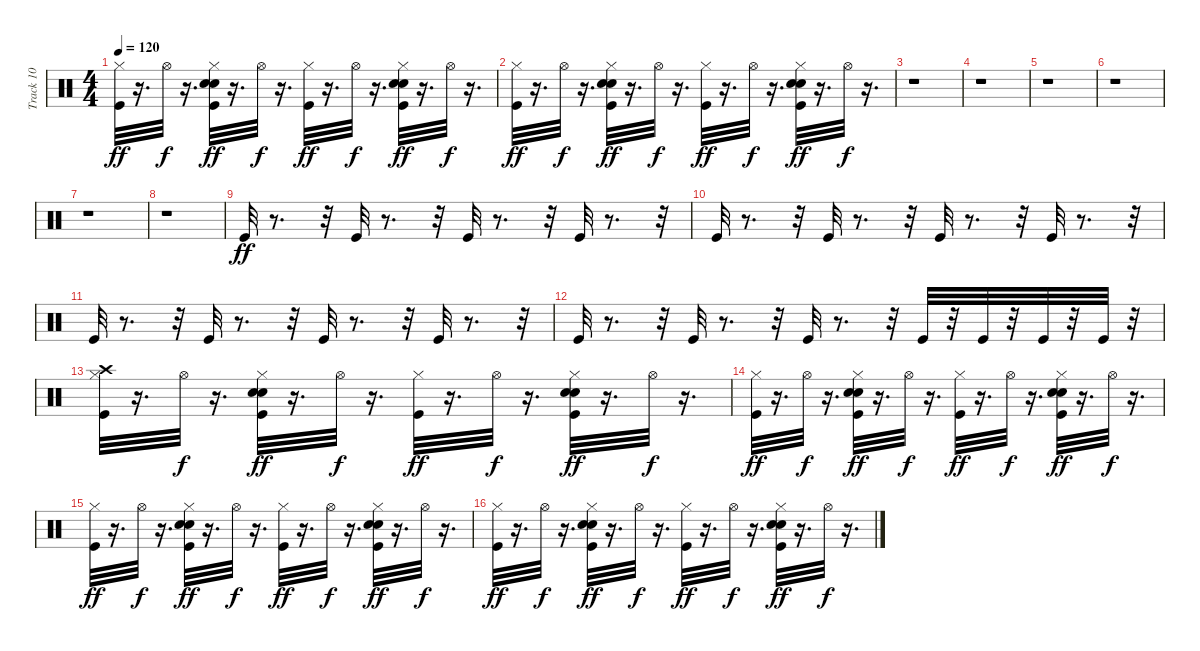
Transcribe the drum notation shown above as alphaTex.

\track ("Track 10" "Track 10") {instrument percussion}
\staff {score}
\articulation defaults
\ts (4 4)
\tempo 120
\clef neutral
\ks c
("Kick (hit)" "Hi-Hat (closed)").32{dy ff} r.16{d} "Hi-Hat (open)".32{dy f} r.16{d} ("Kick (hit)" "Snare (hit) 2" "Hand Clap (hit)" "Hi-Hat (closed)").32{dy ff} r.16{d} "Hi-Hat (open)".32{dy f} r.16{d} ("Kick (hit)" "Hi-Hat (closed)").32{dy ff} r.16{d} "Hi-Hat (open)".32{dy f} r.16{d} ("Kick (hit)" "Snare (hit) 2" "Hand Clap (hit)" "Hi-Hat (closed)").32{dy ff} r.16{d} "Hi-Hat (open)".32{dy f} r.16{d} |
("Kick (hit)" "Hi-Hat (closed)").32{dy ff} r.16{d} "Hi-Hat (open)".32{dy f} r.16{d} ("Kick (hit)" "Snare (hit) 2" "Hand Clap (hit)" "Hi-Hat (closed)").32{dy ff} r.16{d} "Hi-Hat (open)".32{dy f} r.16{d} ("Kick (hit)" "Hi-Hat (closed)").32{dy ff} r.16{d} "Hi-Hat (open)".32{dy f} r.16{d} ("Kick (hit)" "Snare (hit) 2" "Hand Clap (hit)" "Hi-Hat (closed)").32{dy ff} r.16{d} "Hi-Hat (open)".32{dy f} r.16{d} |
r.1 |
r.1 |
r.1 |
r.1 |
r.1 |
r.1 |
"Kick (hit)".32{dy ff} r.8{d} r.32 "Kick (hit)".32 r.8{d} r.32 "Kick (hit)".32 r.8{d} r.32 "Kick (hit)".32 r.8{d} r.32 |
"Kick (hit)".32 r.8{d} r.32 "Kick (hit)".32 r.8{d} r.32 "Kick (hit)".32 r.8{d} r.32 "Kick (hit)".32 r.8{d} r.32 |
"Kick (hit)".32 r.8{d} r.32 "Kick (hit)".32 r.8{d} r.32 "Kick (hit)".32 r.8{d} r.32 "Kick (hit)".32 r.8{d} r.32 |
"Kick (hit)".32 r.8{d} r.32 "Kick (hit)".32 r.8{d} r.32 "Kick (hit)".32 r.8{d} r.32 "Kick (hit)".32 r.32 "Kick (hit)".32 r.32 "Kick (hit)".32 r.32 "Kick (hit)".32 r.32 |
("Kick (hit)" "Hi-Hat (closed)" "Crash high (hit)").32 r.16{d} "Hi-Hat (open)".32{dy f} r.16{d} ("Kick (hit)" "Snare (hit) 2" "Hand Clap (hit)" "Hi-Hat (closed)").32{dy ff} r.16{d} "Hi-Hat (open)".32{dy f} r.16{d} ("Kick (hit)" "Hi-Hat (closed)").32{dy ff} r.16{d} "Hi-Hat (open)".32{dy f} r.16{d} ("Kick (hit)" "Snare (hit) 2" "Hand Clap (hit)" "Hi-Hat (closed)").32{dy ff} r.16{d} "Hi-Hat (open)".32{dy f} r.16{d} |
("Kick (hit)" "Hi-Hat (closed)").32{dy ff} r.16{d} "Hi-Hat (open)".32{dy f} r.16{d} ("Kick (hit)" "Snare (hit) 2" "Hand Clap (hit)" "Hi-Hat (closed)").32{dy ff} r.16{d} "Hi-Hat (open)".32{dy f} r.16{d} ("Kick (hit)" "Hi-Hat (closed)").32{dy ff} r.16{d} "Hi-Hat (open)".32{dy f} r.16{d} ("Kick (hit)" "Snare (hit) 2" "Hand Clap (hit)" "Hi-Hat (closed)").32{dy ff} r.16{d} "Hi-Hat (open)".32{dy f} r.16{d} |
("Kick (hit)" "Hi-Hat (closed)").32{dy ff} r.16{d} "Hi-Hat (open)".32{dy f} r.16{d} ("Kick (hit)" "Snare (hit) 2" "Hand Clap (hit)" "Hi-Hat (closed)").32{dy ff} r.16{d} "Hi-Hat (open)".32{dy f} r.16{d} ("Kick (hit)" "Hi-Hat (closed)").32{dy ff} r.16{d} "Hi-Hat (open)".32{dy f} r.16{d} ("Kick (hit)" "Snare (hit) 2" "Hand Clap (hit)" "Hi-Hat (closed)").32{dy ff} r.16{d} "Hi-Hat (open)".32{dy f} r.16{d} |
("Kick (hit)" "Hi-Hat (closed)").32{dy ff} r.16{d} "Hi-Hat (open)".32{dy f} r.16{d} ("Kick (hit)" "Snare (hit) 2" "Hand Clap (hit)" "Hi-Hat (closed)").32{dy ff} r.16{d} "Hi-Hat (open)".32{dy f} r.16{d} ("Kick (hit)" "Hi-Hat (closed)").32{dy ff} r.16{d} "Hi-Hat (open)".32{dy f} r.16{d} ("Kick (hit)" "Snare (hit) 2" "Hand Clap (hit)" "Hi-Hat (closed)").32{dy ff} r.16{d} "Hi-Hat (open)".32{dy f} r.16{d}
